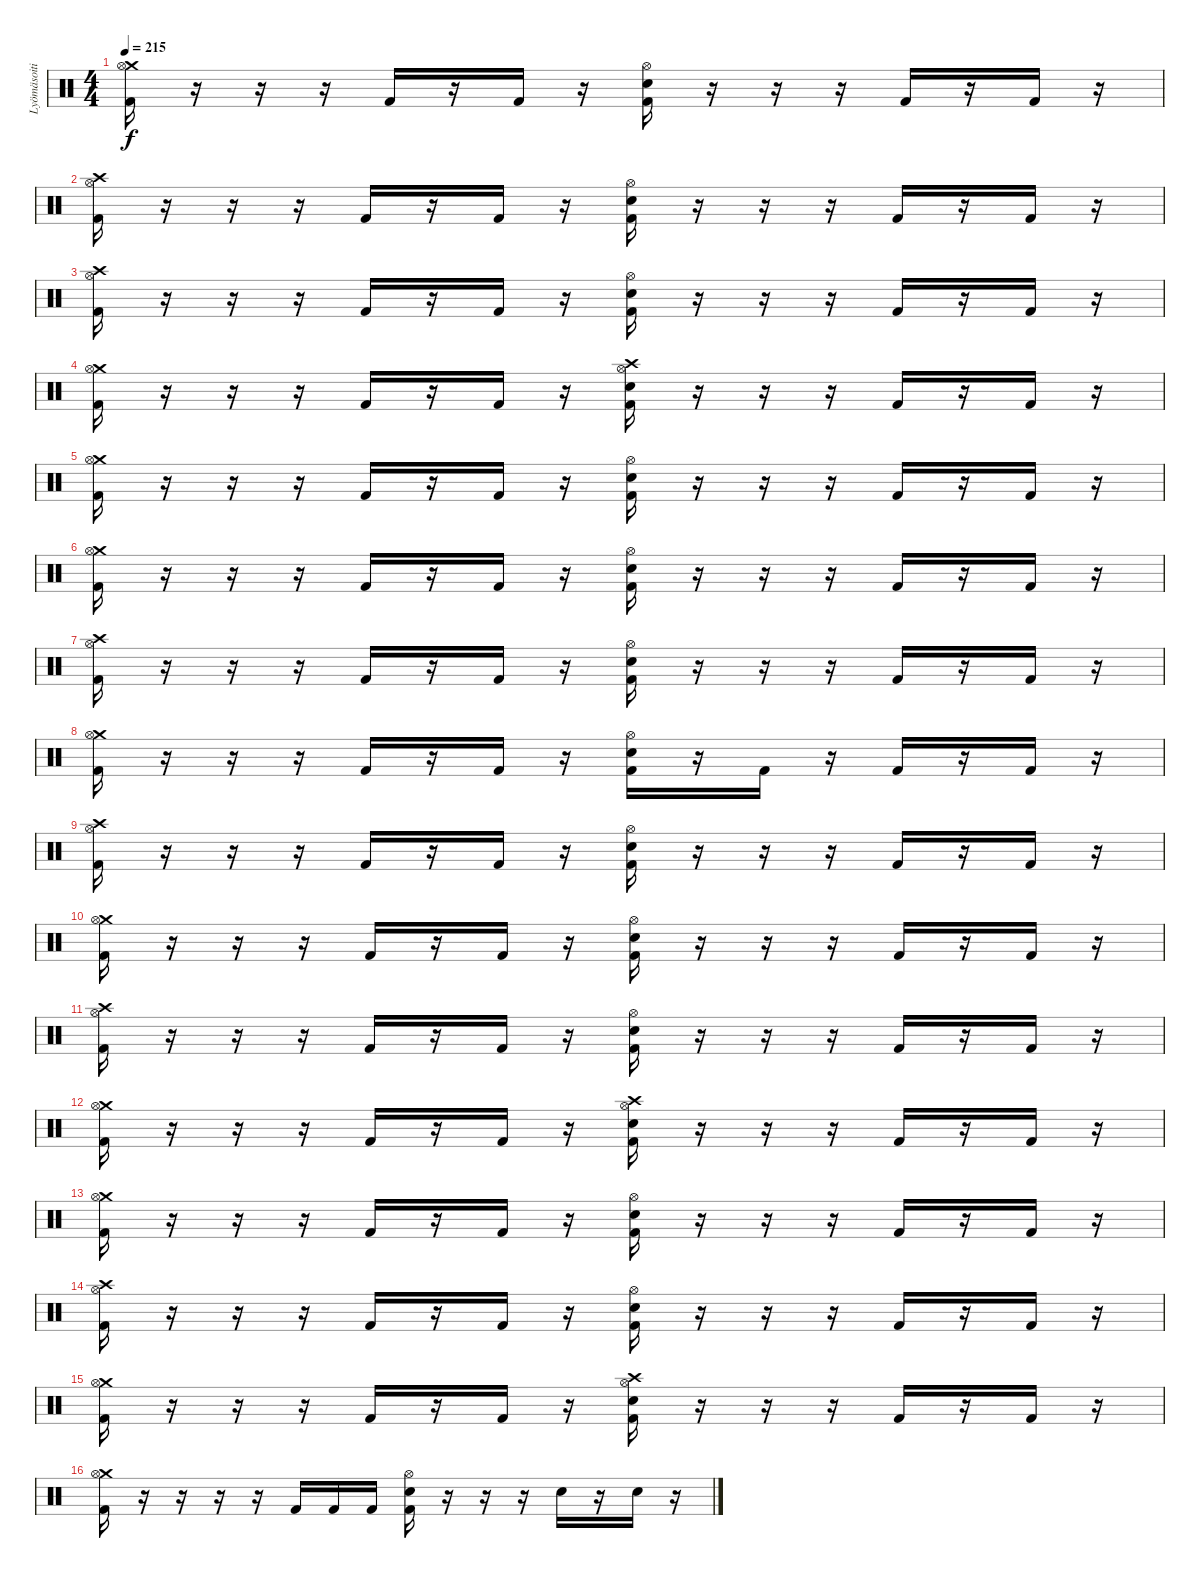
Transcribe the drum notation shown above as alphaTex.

\track ("Lyömäsoitin" "Lyömäsoiti") {instrument percussion}
\staff {score}
\articulation defaults
\ts (4 4)
\tempo 215
\clef neutral
\ks c
("Crash medium (hit)" "Hi-Hat (open)" "Kick (hit) 2").16{dy f} r.16 r.16 r.16 "Kick (hit) 2".16 r.16 "Kick (hit) 2".16 r.16 ("Electric Snare (hit)" "Hi-Hat (open)" "Kick (hit) 2").16 r.16 r.16 r.16 "Kick (hit) 2".16 r.16 "Kick (hit) 2".16 r.16 |
("Crash high (hit)" "Hi-Hat (open)" "Kick (hit) 2").16 r.16 r.16 r.16 "Kick (hit) 2".16 r.16 "Kick (hit) 2".16 r.16 ("Electric Snare (hit)" "Hi-Hat (open)" "Kick (hit) 2").16 r.16 r.16 r.16 "Kick (hit) 2".16 r.16 "Kick (hit) 2".16 r.16 |
("Crash high (hit)" "Hi-Hat (open)" "Kick (hit) 2").16 r.16 r.16 r.16 "Kick (hit) 2".16 r.16 "Kick (hit) 2".16 r.16 ("Electric Snare (hit)" "Hi-Hat (open)" "Kick (hit) 2").16 r.16 r.16 r.16 "Kick (hit) 2".16 r.16 "Kick (hit) 2".16 r.16 |
("Crash medium (hit)" "Hi-Hat (open)" "Kick (hit) 2").16 r.16 r.16 r.16 "Kick (hit) 2".16 r.16 "Kick (hit) 2".16 r.16 ("Electric Snare (hit)" "Hi-Hat (open)" "Kick (hit) 2" "Crash high (hit)").16 r.16 r.16 r.16 "Kick (hit) 2".16 r.16 "Kick (hit) 2".16 r.16 |
("Crash medium (hit)" "Hi-Hat (open)" "Kick (hit) 2").16 r.16 r.16 r.16 "Kick (hit) 2".16 r.16 "Kick (hit) 2".16 r.16 ("Electric Snare (hit)" "Hi-Hat (open)" "Kick (hit) 2").16 r.16 r.16 r.16 "Kick (hit) 2".16 r.16 "Kick (hit) 2".16 r.16 |
("Crash medium (hit)" "Hi-Hat (open)" "Kick (hit) 2").16 r.16 r.16 r.16 "Kick (hit) 2".16 r.16 "Kick (hit) 2".16 r.16 ("Electric Snare (hit)" "Hi-Hat (open)" "Kick (hit) 2").16 r.16 r.16 r.16 "Kick (hit) 2".16 r.16 "Kick (hit) 2".16 r.16 |
("Crash high (hit)" "Hi-Hat (open)" "Kick (hit) 2").16 r.16 r.16 r.16 "Kick (hit) 2".16 r.16 "Kick (hit) 2".16 r.16 ("Electric Snare (hit)" "Hi-Hat (open)" "Kick (hit) 2").16 r.16 r.16 r.16 "Kick (hit) 2".16 r.16 "Kick (hit) 2".16 r.16 |
("Crash medium (hit)" "Hi-Hat (open)" "Kick (hit) 2").16 r.16 r.16 r.16 "Kick (hit) 2".16 r.16 "Kick (hit) 2".16 r.16 ("Electric Snare (hit)" "Hi-Hat (open)" "Kick (hit) 2").16 r.16 "Kick (hit) 2".16 r.16 "Kick (hit) 2".16 r.16 "Kick (hit) 2".16 r.16 |
("Crash high (hit)" "Hi-Hat (open)" "Kick (hit) 2").16 r.16 r.16 r.16 "Kick (hit) 2".16 r.16 "Kick (hit) 2".16 r.16 ("Electric Snare (hit)" "Hi-Hat (open)" "Kick (hit) 2").16 r.16 r.16 r.16 "Kick (hit) 2".16 r.16 "Kick (hit) 2".16 r.16 |
("Crash medium (hit)" "Hi-Hat (open)" "Kick (hit) 2").16 r.16 r.16 r.16 "Kick (hit) 2".16 r.16 "Kick (hit) 2".16 r.16 ("Electric Snare (hit)" "Hi-Hat (open)" "Kick (hit) 2").16 r.16 r.16 r.16 "Kick (hit) 2".16 r.16 "Kick (hit) 2".16 r.16 |
("Crash high (hit)" "Hi-Hat (open)" "Kick (hit) 2").16 r.16 r.16 r.16 "Kick (hit) 2".16 r.16 "Kick (hit) 2".16 r.16 ("Electric Snare (hit)" "Hi-Hat (open)" "Kick (hit) 2").16 r.16 r.16 r.16 "Kick (hit) 2".16 r.16 "Kick (hit) 2".16 r.16 |
("Crash medium (hit)" "Hi-Hat (open)" "Kick (hit) 2").16 r.16 r.16 r.16 "Kick (hit) 2".16 r.16 "Kick (hit) 2".16 r.16 ("Electric Snare (hit)" "Hi-Hat (open)" "Kick (hit) 2" "Crash high (hit)").16 r.16 r.16 r.16 "Kick (hit) 2".16 r.16 "Kick (hit) 2".16 r.16 |
("Crash medium (hit)" "Hi-Hat (open)" "Kick (hit) 2").16 r.16 r.16 r.16 "Kick (hit) 2".16 r.16 "Kick (hit) 2".16 r.16 ("Electric Snare (hit)" "Hi-Hat (open)" "Kick (hit) 2").16 r.16 r.16 r.16 "Kick (hit) 2".16 r.16 "Kick (hit) 2".16 r.16 |
("Crash high (hit)" "Hi-Hat (open)" "Kick (hit) 2").16 r.16 r.16 r.16 "Kick (hit) 2".16 r.16 "Kick (hit) 2".16 r.16 ("Electric Snare (hit)" "Hi-Hat (open)" "Kick (hit) 2").16 r.16 r.16 r.16 "Kick (hit) 2".16 r.16 "Kick (hit) 2".16 r.16 |
("Crash medium (hit)" "Hi-Hat (open)" "Kick (hit) 2").16 r.16 r.16 r.16 "Kick (hit) 2".16 r.16 "Kick (hit) 2".16 r.16 ("Electric Snare (hit)" "Hi-Hat (open)" "Kick (hit) 2" "Crash high (hit)").16 r.16 r.16 r.16 "Kick (hit) 2".16 r.16 "Kick (hit) 2".16 r.16 |
("Crash medium (hit)" "Hi-Hat (open)" "Kick (hit) 2").16 r.16 r.16 r.16 r.16 "Kick (hit) 2".16 "Kick (hit) 2".16 "Kick (hit) 2".16 ("Electric Snare (hit)" "Hi-Hat (open)" "Kick (hit) 2").16 r.16 r.16 r.16 "Electric Snare (hit)".16 r.16 "Electric Snare (hit)".16 r.16
